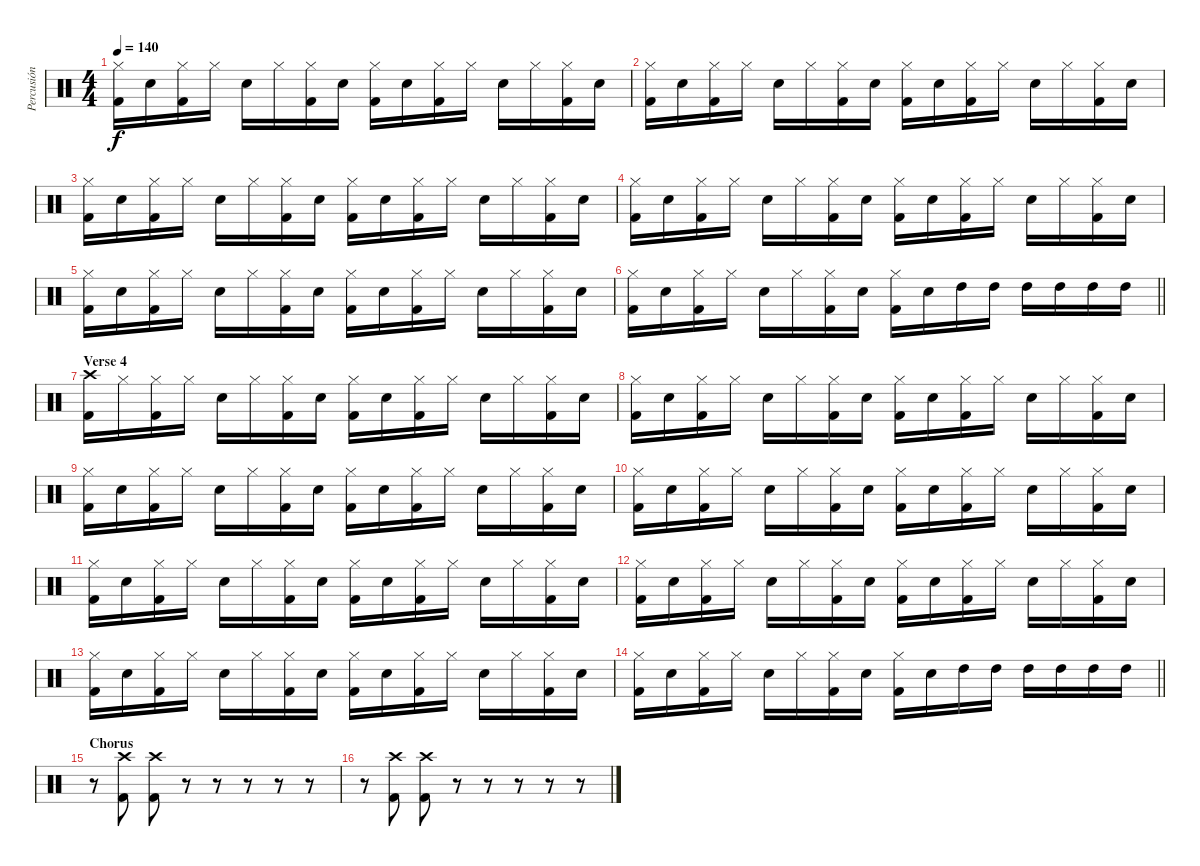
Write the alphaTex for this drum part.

\track ("Percusión" "Percusión") {instrument percussion}
\staff {score}
\articulation defaults
\ts (4 4)
\tempo 140
\clef neutral
\ks c
("Hi-Hat (closed)" "Kick (hit) 2").16{dy f} "Electric Snare (hit)".16 ("Hi-Hat (closed)" "Kick (hit) 2").16 "Hi-Hat (closed)".16 "Electric Snare (hit)".16 "Hi-Hat (closed)".16 ("Hi-Hat (closed)" "Kick (hit) 2").16 "Electric Snare (hit)".16 ("Hi-Hat (closed)" "Kick (hit) 2").16 "Electric Snare (hit)".16 ("Hi-Hat (closed)" "Kick (hit) 2").16 "Hi-Hat (closed)".16 "Electric Snare (hit)".16 "Hi-Hat (closed)".16 ("Hi-Hat (closed)" "Kick (hit) 2").16 "Electric Snare (hit)".16 |
("Hi-Hat (closed)" "Kick (hit) 2").16 "Electric Snare (hit)".16 ("Hi-Hat (closed)" "Kick (hit) 2").16 "Hi-Hat (closed)".16 "Electric Snare (hit)".16 "Hi-Hat (closed)".16 ("Hi-Hat (closed)" "Kick (hit) 2").16 "Electric Snare (hit)".16 ("Hi-Hat (closed)" "Kick (hit) 2").16 "Electric Snare (hit)".16 ("Hi-Hat (closed)" "Kick (hit) 2").16 "Hi-Hat (closed)".16 "Electric Snare (hit)".16 "Hi-Hat (closed)".16 ("Hi-Hat (closed)" "Kick (hit) 2").16 "Electric Snare (hit)".16 |
("Hi-Hat (closed)" "Kick (hit) 2").16 "Electric Snare (hit)".16 ("Hi-Hat (closed)" "Kick (hit) 2").16 "Hi-Hat (closed)".16 "Electric Snare (hit)".16 "Hi-Hat (closed)".16 ("Hi-Hat (closed)" "Kick (hit) 2").16 "Electric Snare (hit)".16 ("Hi-Hat (closed)" "Kick (hit) 2").16 "Electric Snare (hit)".16 ("Hi-Hat (closed)" "Kick (hit) 2").16 "Hi-Hat (closed)".16 "Electric Snare (hit)".16 "Hi-Hat (closed)".16 ("Hi-Hat (closed)" "Kick (hit) 2").16 "Electric Snare (hit)".16 |
("Hi-Hat (closed)" "Kick (hit) 2").16 "Electric Snare (hit)".16 ("Hi-Hat (closed)" "Kick (hit) 2").16 "Hi-Hat (closed)".16 "Electric Snare (hit)".16 "Hi-Hat (closed)".16 ("Hi-Hat (closed)" "Kick (hit) 2").16 "Electric Snare (hit)".16 ("Hi-Hat (closed)" "Kick (hit) 2").16 "Electric Snare (hit)".16 ("Hi-Hat (closed)" "Kick (hit) 2").16 "Hi-Hat (closed)".16 "Electric Snare (hit)".16 "Hi-Hat (closed)".16 ("Hi-Hat (closed)" "Kick (hit) 2").16 "Electric Snare (hit)".16 |
("Hi-Hat (closed)" "Kick (hit) 2").16 "Electric Snare (hit)".16 ("Hi-Hat (closed)" "Kick (hit) 2").16 "Hi-Hat (closed)".16 "Electric Snare (hit)".16 "Hi-Hat (closed)".16 ("Hi-Hat (closed)" "Kick (hit) 2").16 "Electric Snare (hit)".16 ("Hi-Hat (closed)" "Kick (hit) 2").16 "Electric Snare (hit)".16 ("Hi-Hat (closed)" "Kick (hit) 2").16 "Hi-Hat (closed)".16 "Electric Snare (hit)".16 "Hi-Hat (closed)".16 ("Hi-Hat (closed)" "Kick (hit) 2").16 "Electric Snare (hit)".16 |
\barLineRight lightlight
("Hi-Hat (closed)" "Kick (hit) 2").16 "Electric Snare (hit)".16 ("Hi-Hat (closed)" "Kick (hit) 2").16 "Hi-Hat (closed)".16 "Electric Snare (hit)".16 "Hi-Hat (closed)".16 ("Hi-Hat (closed)" "Kick (hit) 2").16 "Electric Snare (hit)".16 ("Hi-Hat (closed)" "Kick (hit) 2").16 "Electric Snare (hit)".16 "High Tom (hit)".16 "High Tom (hit)".16 "High Tom (hit)".16 "High Tom (hit)".16 "High Tom (hit)".16 "High Tom (hit)".16 |
\section ("" "Verse 4")
("Crash high (hit)" "Kick (hit) 2").16 "Hi-Hat (closed)".16 ("Hi-Hat (closed)" "Kick (hit) 2").16 "Hi-Hat (closed)".16 "Electric Snare (hit)".16 "Hi-Hat (closed)".16 ("Hi-Hat (closed)" "Kick (hit) 2").16 "Electric Snare (hit)".16 ("Hi-Hat (closed)" "Kick (hit) 2").16 "Electric Snare (hit)".16 ("Hi-Hat (closed)" "Kick (hit) 2").16 "Hi-Hat (closed)".16 "Electric Snare (hit)".16 "Hi-Hat (closed)".16 ("Hi-Hat (closed)" "Kick (hit) 2").16 "Electric Snare (hit)".16 |
("Hi-Hat (closed)" "Kick (hit) 2").16 "Electric Snare (hit)".16 ("Hi-Hat (closed)" "Kick (hit) 2").16 "Hi-Hat (closed)".16 "Electric Snare (hit)".16 "Hi-Hat (closed)".16 ("Hi-Hat (closed)" "Kick (hit) 2").16 "Electric Snare (hit)".16 ("Hi-Hat (closed)" "Kick (hit) 2").16 "Electric Snare (hit)".16 ("Hi-Hat (closed)" "Kick (hit) 2").16 "Hi-Hat (closed)".16 "Electric Snare (hit)".16 "Hi-Hat (closed)".16 ("Hi-Hat (closed)" "Kick (hit) 2").16 "Electric Snare (hit)".16 |
("Hi-Hat (closed)" "Kick (hit) 2").16 "Electric Snare (hit)".16 ("Hi-Hat (closed)" "Kick (hit) 2").16 "Hi-Hat (closed)".16 "Electric Snare (hit)".16 "Hi-Hat (closed)".16 ("Hi-Hat (closed)" "Kick (hit) 2").16 "Electric Snare (hit)".16 ("Hi-Hat (closed)" "Kick (hit) 2").16 "Electric Snare (hit)".16 ("Hi-Hat (closed)" "Kick (hit) 2").16 "Hi-Hat (closed)".16 "Electric Snare (hit)".16 "Hi-Hat (closed)".16 ("Hi-Hat (closed)" "Kick (hit) 2").16 "Electric Snare (hit)".16 |
("Hi-Hat (closed)" "Kick (hit) 2").16 "Electric Snare (hit)".16 ("Hi-Hat (closed)" "Kick (hit) 2").16 "Hi-Hat (closed)".16 "Electric Snare (hit)".16 "Hi-Hat (closed)".16 ("Hi-Hat (closed)" "Kick (hit) 2").16 "Electric Snare (hit)".16 ("Hi-Hat (closed)" "Kick (hit) 2").16 "Electric Snare (hit)".16 ("Hi-Hat (closed)" "Kick (hit) 2").16 "Hi-Hat (closed)".16 "Electric Snare (hit)".16 "Hi-Hat (closed)".16 ("Hi-Hat (closed)" "Kick (hit) 2").16 "Electric Snare (hit)".16 |
("Hi-Hat (closed)" "Kick (hit) 2").16 "Electric Snare (hit)".16 ("Hi-Hat (closed)" "Kick (hit) 2").16 "Hi-Hat (closed)".16 "Electric Snare (hit)".16 "Hi-Hat (closed)".16 ("Hi-Hat (closed)" "Kick (hit) 2").16 "Electric Snare (hit)".16 ("Hi-Hat (closed)" "Kick (hit) 2").16 "Electric Snare (hit)".16 ("Hi-Hat (closed)" "Kick (hit) 2").16 "Hi-Hat (closed)".16 "Electric Snare (hit)".16 "Hi-Hat (closed)".16 ("Hi-Hat (closed)" "Kick (hit) 2").16 "Electric Snare (hit)".16 |
("Hi-Hat (closed)" "Kick (hit) 2").16 "Electric Snare (hit)".16 ("Hi-Hat (closed)" "Kick (hit) 2").16 "Hi-Hat (closed)".16 "Electric Snare (hit)".16 "Hi-Hat (closed)".16 ("Hi-Hat (closed)" "Kick (hit) 2").16 "Electric Snare (hit)".16 ("Hi-Hat (closed)" "Kick (hit) 2").16 "Electric Snare (hit)".16 ("Hi-Hat (closed)" "Kick (hit) 2").16 "Hi-Hat (closed)".16 "Electric Snare (hit)".16 "Hi-Hat (closed)".16 ("Hi-Hat (closed)" "Kick (hit) 2").16 "Electric Snare (hit)".16 |
("Hi-Hat (closed)" "Kick (hit) 2").16 "Electric Snare (hit)".16 ("Hi-Hat (closed)" "Kick (hit) 2").16 "Hi-Hat (closed)".16 "Electric Snare (hit)".16 "Hi-Hat (closed)".16 ("Hi-Hat (closed)" "Kick (hit) 2").16 "Electric Snare (hit)".16 ("Hi-Hat (closed)" "Kick (hit) 2").16 "Electric Snare (hit)".16 ("Hi-Hat (closed)" "Kick (hit) 2").16 "Hi-Hat (closed)".16 "Electric Snare (hit)".16 "Hi-Hat (closed)".16 ("Hi-Hat (closed)" "Kick (hit) 2").16 "Electric Snare (hit)".16 |
\barLineRight lightlight
("Hi-Hat (closed)" "Kick (hit) 2").16 "Electric Snare (hit)".16 ("Hi-Hat (closed)" "Kick (hit) 2").16 "Hi-Hat (closed)".16 "Electric Snare (hit)".16 "Hi-Hat (closed)".16 ("Hi-Hat (closed)" "Kick (hit) 2").16 "Electric Snare (hit)".16 ("Hi-Hat (closed)" "Kick (hit) 2").16 "Electric Snare (hit)".16 "High Tom (hit)".16 "High Tom (hit)".16 "High Tom (hit)".16 "High Tom (hit)".16 "High Tom (hit)".16 "High Tom (hit)".16 |
\section ("" "Chorus")
r.8 ("Crash high (hit)" "Kick (hit) 2").8 ("Crash high (hit)" "Kick (hit) 2").8 r.8 r.8 r.8 r.8 r.8 |
r.8 ("Crash high (hit)" "Kick (hit) 2").8 ("Crash high (hit)" "Kick (hit) 2").8 r.8 r.8 r.8 r.8 r.8
